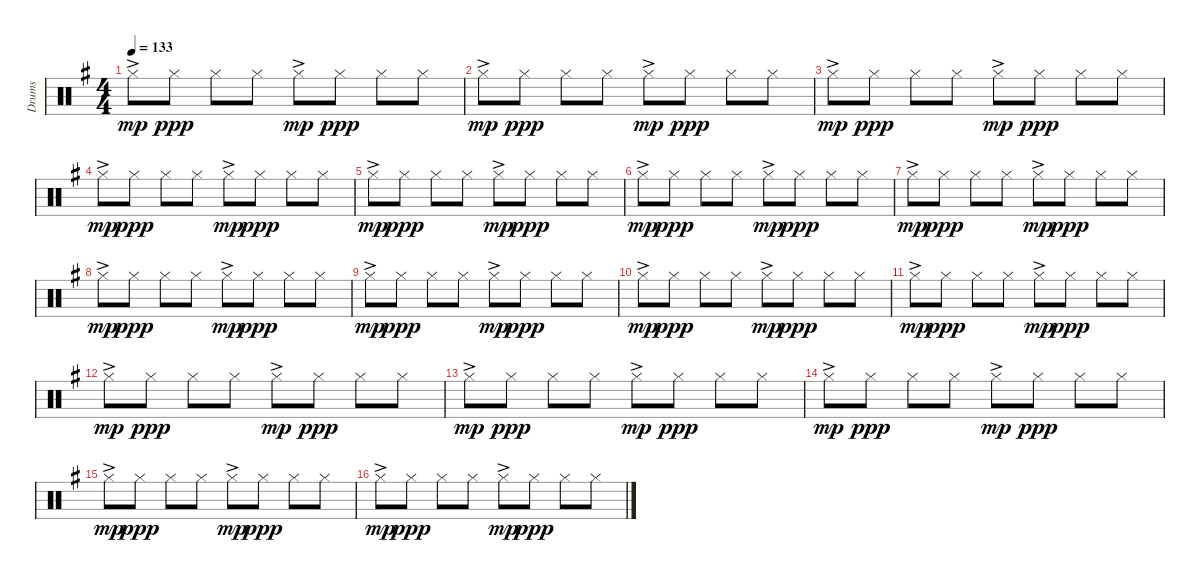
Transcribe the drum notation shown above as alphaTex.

\track ("Drums" "Drums") {instrument percussion}
\staff {score}
\articulation defaults
\ts (4 4)
\tempo 133
\clef neutral
\ks g "Hi-Hat (closed)"{ac}.8{dy mp} "Hi-Hat (closed)".8{dy ppp} "Hi-Hat (closed)".8 "Hi-Hat (closed)".8 "Hi-Hat (closed)"{ac}.8{dy mp} "Hi-Hat (closed)".8{dy ppp} "Hi-Hat (closed)".8 "Hi-Hat (closed)".8
|
"Hi-Hat (closed)"{ac}.8{dy mp} "Hi-Hat (closed)".8{dy ppp} "Hi-Hat (closed)".8 "Hi-Hat (closed)".8 "Hi-Hat (closed)"{ac}.8{dy mp} "Hi-Hat (closed)".8{dy ppp} "Hi-Hat (closed)".8 "Hi-Hat (closed)".8 |
"Hi-Hat (closed)"{ac}.8{dy mp} "Hi-Hat (closed)".8{dy ppp} "Hi-Hat (closed)".8 "Hi-Hat (closed)".8 "Hi-Hat (closed)"{ac}.8{dy mp} "Hi-Hat (closed)".8{dy ppp} "Hi-Hat (closed)".8 "Hi-Hat (closed)".8 |
"Hi-Hat (closed)"{ac}.8{dy mp} "Hi-Hat (closed)".8{dy ppp} "Hi-Hat (closed)".8 "Hi-Hat (closed)".8 "Hi-Hat (closed)"{ac}.8{dy mp} "Hi-Hat (closed)".8{dy ppp} "Hi-Hat (closed)".8 "Hi-Hat (closed)".8 |
"Hi-Hat (closed)"{ac}.8{dy mp} "Hi-Hat (closed)".8{dy ppp} "Hi-Hat (closed)".8 "Hi-Hat (closed)".8 "Hi-Hat (closed)"{ac}.8{dy mp} "Hi-Hat (closed)".8{dy ppp} "Hi-Hat (closed)".8 "Hi-Hat (closed)".8 |
"Hi-Hat (closed)"{ac}.8{dy mp} "Hi-Hat (closed)".8{dy ppp} "Hi-Hat (closed)".8 "Hi-Hat (closed)".8 "Hi-Hat (closed)"{ac}.8{dy mp} "Hi-Hat (closed)".8{dy ppp} "Hi-Hat (closed)".8 "Hi-Hat (closed)".8 |
"Hi-Hat (closed)"{ac}.8{dy mp} "Hi-Hat (closed)".8{dy ppp} "Hi-Hat (closed)".8 "Hi-Hat (closed)".8 "Hi-Hat (closed)"{ac}.8{dy mp} "Hi-Hat (closed)".8{dy ppp} "Hi-Hat (closed)".8 "Hi-Hat (closed)".8 |
"Hi-Hat (closed)"{ac}.8{dy mp} "Hi-Hat (closed)".8{dy ppp} "Hi-Hat (closed)".8 "Hi-Hat (closed)".8 "Hi-Hat (closed)"{ac}.8{dy mp} "Hi-Hat (closed)".8{dy ppp} "Hi-Hat (closed)".8 "Hi-Hat (closed)".8 |
"Hi-Hat (closed)"{ac}.8{dy mp} "Hi-Hat (closed)".8{dy ppp} "Hi-Hat (closed)".8 "Hi-Hat (closed)".8 "Hi-Hat (closed)"{ac}.8{dy mp} "Hi-Hat (closed)".8{dy ppp} "Hi-Hat (closed)".8 "Hi-Hat (closed)".8 |
"Hi-Hat (closed)"{ac}.8{dy mp} "Hi-Hat (closed)".8{dy ppp} "Hi-Hat (closed)".8 "Hi-Hat (closed)".8 "Hi-Hat (closed)"{ac}.8{dy mp} "Hi-Hat (closed)".8{dy ppp} "Hi-Hat (closed)".8 "Hi-Hat (closed)".8 |
"Hi-Hat (closed)"{ac}.8{dy mp} "Hi-Hat (closed)".8{dy ppp} "Hi-Hat (closed)".8 "Hi-Hat (closed)".8 "Hi-Hat (closed)"{ac}.8{dy mp} "Hi-Hat (closed)".8{dy ppp} "Hi-Hat (closed)".8 "Hi-Hat (closed)".8 |
"Hi-Hat (closed)"{ac}.8{dy mp} "Hi-Hat (closed)".8{dy ppp} "Hi-Hat (closed)".8 "Hi-Hat (closed)".8 "Hi-Hat (closed)"{ac}.8{dy mp} "Hi-Hat (closed)".8{dy ppp} "Hi-Hat (closed)".8 "Hi-Hat (closed)".8 |
"Hi-Hat (closed)"{ac}.8{dy mp} "Hi-Hat (closed)".8{dy ppp} "Hi-Hat (closed)".8 "Hi-Hat (closed)".8 "Hi-Hat (closed)"{ac}.8{dy mp} "Hi-Hat (closed)".8{dy ppp} "Hi-Hat (closed)".8 "Hi-Hat (closed)".8 |
"Hi-Hat (closed)"{ac}.8{dy mp} "Hi-Hat (closed)".8{dy ppp} "Hi-Hat (closed)".8 "Hi-Hat (closed)".8 "Hi-Hat (closed)"{ac}.8{dy mp} "Hi-Hat (closed)".8{dy ppp} "Hi-Hat (closed)".8 "Hi-Hat (closed)".8 |
"Hi-Hat (closed)"{ac}.8{dy mp} "Hi-Hat (closed)".8{dy ppp} "Hi-Hat (closed)".8 "Hi-Hat (closed)".8 "Hi-Hat (closed)"{ac}.8{dy mp} "Hi-Hat (closed)".8{dy ppp} "Hi-Hat (closed)".8 "Hi-Hat (closed)".8 |
"Hi-Hat (closed)"{ac}.8{dy mp} "Hi-Hat (closed)".8{dy ppp} "Hi-Hat (closed)".8 "Hi-Hat (closed)".8 "Hi-Hat (closed)"{ac}.8{dy mp} "Hi-Hat (closed)".8{dy ppp} "Hi-Hat (closed)".8 "Hi-Hat (closed)".8
